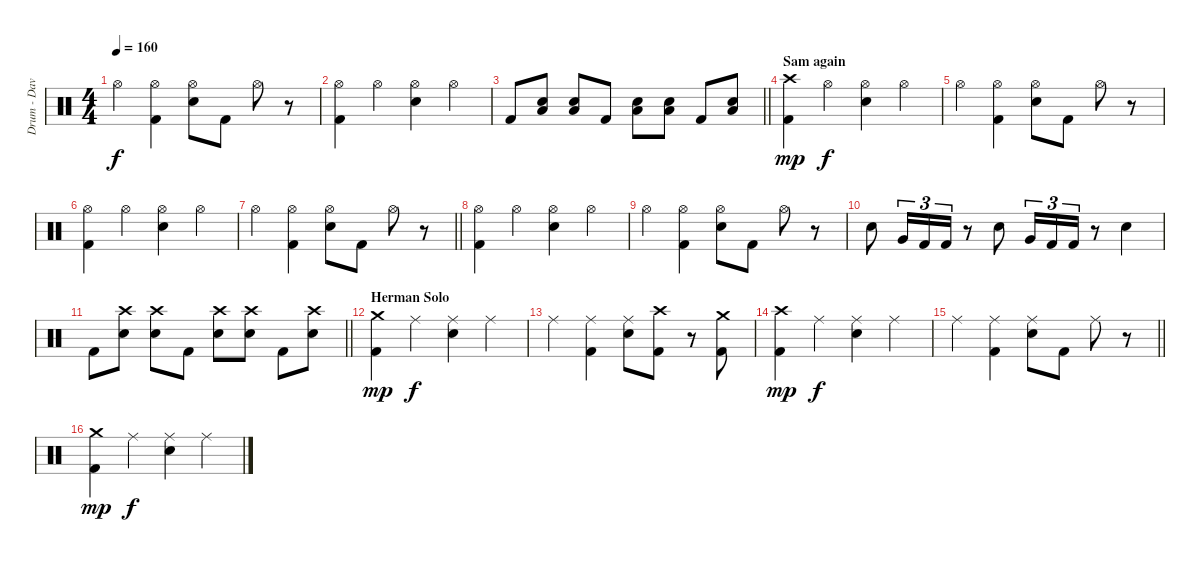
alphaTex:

\track ("Drum - Dave Mackintosh" "Drum - Dav") {instrument percussion}
\staff {score}
\articulation defaults
\ts (4 4)
\tempo 160
\clef neutral
\ks c "Hi-Hat (open)".4{dy f}
("Hi-Hat (open)" "Kick (hit) 2").4 ("Hi-Hat (open)" "Electric Snare (hit)").8 "Kick (hit) 2".8 "Hi-Hat (open)".8 r.8 |
("Hi-Hat (open)" "Kick (hit) 2").4 "Hi-Hat (open)".4 ("Hi-Hat (open)" "Electric Snare (hit)").4 "Hi-Hat (open)".4 |
\barLineRight lightlight "Kick (hit) 2".8
("Electric Snare (hit)" "Low Floor Tom (hit)").8 ("Electric Snare (hit)" "Low Floor Tom (hit)").8 "Kick (hit) 2".8 ("Electric Snare (hit)" "Low Floor Tom (hit)").8 ("Electric Snare (hit)" "Low Floor Tom (hit)").8 "Kick (hit) 2".8 ("Electric Snare (hit)" "Low Floor Tom (hit)").8 |
\section ("" "Sam again")
("Crash high (hit)" "Kick (hit) 2").4{dy mp} "Hi-Hat (open)".4{dy f} ("Hi-Hat (open)" "Electric Snare (hit)").4 "Hi-Hat (open)".4 |
"Hi-Hat (open)".4 ("Hi-Hat (open)" "Kick (hit) 2").4 ("Hi-Hat (open)" "Electric Snare (hit)").8 "Kick (hit) 2".8 "Hi-Hat (open)".8 r.8 |
("Hi-Hat (open)" "Kick (hit) 2").4 "Hi-Hat (open)".4 ("Hi-Hat (open)" "Electric Snare (hit)").4 "Hi-Hat (open)".4 |
\barLineRight lightlight "Hi-Hat (open)".4
("Hi-Hat (open)" "Kick (hit) 2").4 ("Hi-Hat (open)" "Electric Snare (hit)").8 "Kick (hit) 2".8 "Hi-Hat (open)".8 r.8 |
("Hi-Hat (open)" "Kick (hit) 2").4 "Hi-Hat (open)".4 ("Hi-Hat (open)" "Electric Snare (hit)").4 "Hi-Hat (open)".4 |
"Hi-Hat (open)".4 ("Hi-Hat (open)" "Kick (hit) 2").4 ("Hi-Hat (open)" "Electric Snare (hit)").8 "Kick (hit) 2".8 "Hi-Hat (open)".8 r.8 |
"Electric Snare (hit)".8 "Very Low Tom (hit)".16{tu (3 2)} "Kick (hit) 2".16{tu (3 2)} "Kick (hit) 2".16{tu (3 2)} r.8 "Electric Snare (hit)".8 "Very Low Tom (hit)".16{tu (3 2)} "Kick (hit) 2".16{tu (3 2)} "Kick (hit) 2".16{tu (3 2)} r.8 "Electric Snare (hit)".4 |
\barLineRight lightlight "Kick (hit) 2".8
("Crash high (hit)" "Electric Snare (hit)").8 ("Crash high (hit)" "Electric Snare (hit)").8 "Kick (hit) 2".8 ("Crash high (hit)" "Electric Snare (hit)").8 ("Crash high (hit)" "Electric Snare (hit)").8 "Kick (hit) 2".8 ("Crash high (hit)" "Electric Snare (hit)").8 |
\section ("" "Herman Solo")
("Crash medium (hit)" "Kick (hit) 2").4{dy mp} "Ride (middle)".4{dy f} ("Ride (middle)" "Electric Snare (hit)").4 "Ride (middle)".4 |
"Ride (middle)".4 ("Ride (middle)" "Kick (hit) 2").4 ("Ride (middle)" "Electric Snare (hit)").8 ("Crash high (hit)" "Kick (hit) 2").8 r.8 ("Crash medium (hit)" "Kick (hit) 2").8 |
("Crash high (hit)" "Kick (hit) 2").4{dy mp} "Ride (middle)".4{dy f} ("Ride (middle)" "Electric Snare (hit)").4 "Ride (middle)".4 |
\barLineRight lightlight "Ride (middle)".4
("Ride (middle)" "Kick (hit) 2").4 ("Ride (middle)" "Electric Snare (hit)").8 "Kick (hit) 2".8 "Ride (middle)".8 r.8 |
("Crash medium (hit)" "Kick (hit) 2").4{dy mp} "Ride (middle)".4{dy f} ("Ride (middle)" "Electric Snare (hit)").4 "Ride (middle)".4
